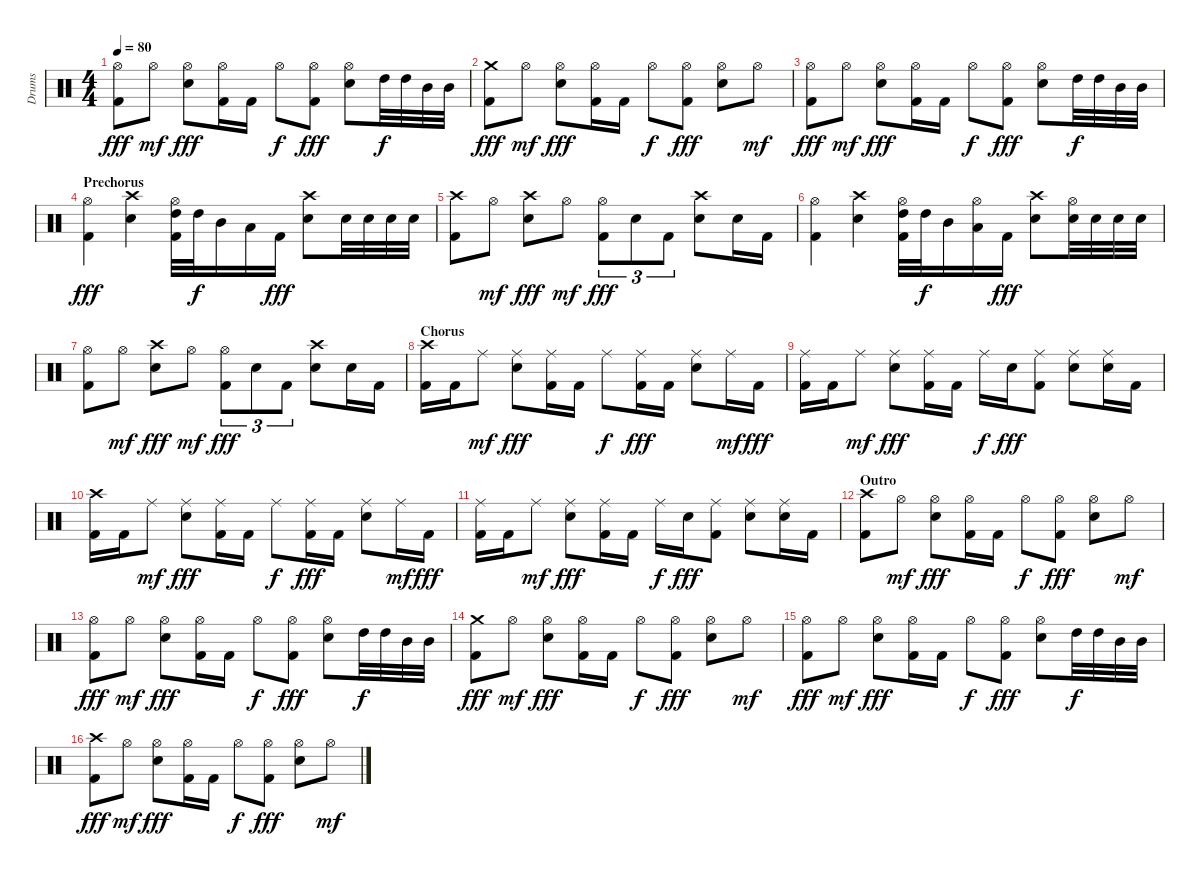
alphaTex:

\track ("Drums" "Drums") {instrument percussion}
\staff {score}
\articulation defaults
\ts (4 4)
\tempo 80
\clef neutral
\ks c
("Hi-Hat (open)" "Kick (hit) 2").8{dy fff} "Hi-Hat (open)".8{dy mf} ("Hi-Hat (open)" "Snare (hit) 2").8{dy fff} ("Hi-Hat (open)" "Kick (hit) 2").16 "Kick (hit) 2".16 "Hi-Hat (open)".8{dy f} ("Hi-Hat (open)" "Kick (hit) 2").8{dy fff} ("Hi-Hat (open)" "Snare (hit) 2").8 "High Tom (hit)".32{dy f} "High Tom (hit)".32 "Mid Tom (hit)".32 "Mid Tom (hit)".32 |
("Crash medium (hit)" "Kick (hit) 2").8{dy fff} "Hi-Hat (open)".8{dy mf} ("Hi-Hat (open)" "Snare (hit) 2").8{dy fff} ("Hi-Hat (open)" "Kick (hit) 2").16 "Kick (hit) 2".16 "Hi-Hat (open)".8{dy f} ("Hi-Hat (open)" "Kick (hit) 2").8{dy fff} ("Hi-Hat (open)" "Snare (hit) 2").8 "Hi-Hat (open)".8{dy mf} |
("Hi-Hat (open)" "Kick (hit) 2").8{dy fff} "Hi-Hat (open)".8{dy mf} ("Hi-Hat (open)" "Snare (hit) 2").8{dy fff} ("Hi-Hat (open)" "Kick (hit) 2").16 "Kick (hit) 2".16 "Hi-Hat (open)".8{dy f} ("Hi-Hat (open)" "Kick (hit) 2").8{dy fff} ("Hi-Hat (open)" "Snare (hit) 2").8 "High Tom (hit)".32{dy f} "High Tom (hit)".32 "Mid Tom (hit)".32 "Mid Tom (hit)".32 |
\section ("" "Prechorus")
("Hi-Hat (open)" "Kick (hit) 2").4{dy fff} ("Crash high (hit)" "Snare (hit) 2").4 ("Hi-Hat (open)" "High Tom (hit)" "Kick (hit) 2").32 "High Tom (hit)".32{dy f} "Mid Tom (hit)".16 "Low Tom (hit)".16 "Kick (hit) 2".16{dy fff} ("Crash high (hit)" "Snare (hit) 2").8 "Snare (hit) 2".32 "Snare (hit) 2".32 "Snare (hit) 2".32 "Snare (hit) 2".32 |
("Crash high (hit)" "Kick (hit) 2").8 "Hi-Hat (open)".8{dy mf} ("Crash high (hit)" "Snare (hit) 2").8{dy fff} "Hi-Hat (open)".8{dy mf} ("Hi-Hat (open)" "Kick (hit) 2").8{tu (3 2) dy fff} "Snare (hit) 2".8{tu (3 2)} "Kick (hit) 2".8{tu (3 2)} ("Crash high (hit)" "Snare (hit) 2").8 "Snare (hit) 2".16 "Kick (hit) 2".16 |
("Hi-Hat (open)" "Kick (hit) 2").4 ("Crash high (hit)" "Snare (hit) 2").4 ("Hi-Hat (open)" "High Tom (hit)" "Kick (hit) 2").32 "High Tom (hit)".32{dy f} "Mid Tom (hit)".16 ("Hi-Hat (open)" "Low Tom (hit)").16 "Kick (hit) 2".16{dy fff} ("Crash high (hit)" "Snare (hit) 2").8 ("Hi-Hat (open)" "Snare (hit) 2").32 "Snare (hit) 2".32 "Snare (hit) 2".32 "Snare (hit) 2".32 |
("Hi-Hat (open)" "Kick (hit) 2").8 "Hi-Hat (open)".8{dy mf} ("Crash high (hit)" "Snare (hit) 2").8{dy fff} "Hi-Hat (open)".8{dy mf} ("Hi-Hat (open)" "Kick (hit) 2").8{tu (3 2) dy fff} "Snare (hit) 2".8{tu (3 2)} "Kick (hit) 2".8{tu (3 2)} ("Crash high (hit)" "Snare (hit) 2").8 "Snare (hit) 2".16 "Kick (hit) 2".16 |
\section ("" "Chorus")
("Crash high (hit)" "Kick (hit) 2").16 "Kick (hit) 2".16 "Ride (middle)".8{dy mf} ("Ride (middle)" "Snare (hit) 2").8{dy fff} ("Ride (middle)" "Kick (hit) 2").16 "Kick (hit) 2".16 "Ride (middle)".8{dy f} ("Ride (middle)" "Kick (hit) 2").16{dy fff} "Kick (hit) 2".16 ("Ride (middle)" "Snare (hit) 2").8 "Ride (middle)".16{dy mf} "Kick (hit) 2".16{dy fff} |
("Ride (middle)" "Kick (hit) 2").16 "Kick (hit) 2".16 "Ride (middle)".8{dy mf} ("Ride (middle)" "Snare (hit) 2").8{dy fff} ("Ride (middle)" "Kick (hit) 2").16 "Kick (hit) 2".16 "Ride (middle)".16{dy f} "Snare (hit) 2".16{dy fff} ("Ride (middle)" "Kick (hit) 2").8 ("Ride (middle)" "Snare (hit) 2").8 ("Ride (middle)" "Snare (hit) 2").16 "Kick (hit) 2".16 |
("Crash high (hit)" "Kick (hit) 2").16 "Kick (hit) 2".16 "Ride (middle)".8{dy mf} ("Ride (middle)" "Snare (hit) 2").8{dy fff} ("Ride (middle)" "Kick (hit) 2").16 "Kick (hit) 2".16 "Ride (middle)".8{dy f} ("Ride (middle)" "Kick (hit) 2").16{dy fff} "Kick (hit) 2".16 ("Ride (middle)" "Snare (hit) 2").8 "Ride (middle)".16{dy mf} "Kick (hit) 2".16{dy fff} |
("Ride (middle)" "Kick (hit) 2").16 "Kick (hit) 2".16 "Ride (middle)".8{dy mf} ("Ride (middle)" "Snare (hit) 2").8{dy fff} ("Ride (middle)" "Kick (hit) 2").16 "Kick (hit) 2".16 "Ride (middle)".16{dy f} "Snare (hit) 2".16{dy fff} ("Ride (middle)" "Kick (hit) 2").8 ("Ride (middle)" "Snare (hit) 2").8 ("Ride (middle)" "Snare (hit) 2").16 "Kick (hit) 2".16 |
\section ("" "Outro")
("Crash high (hit)" "Kick (hit) 2").8 "Hi-Hat (open)".8{dy mf} ("Hi-Hat (open)" "Snare (hit) 2").8{dy fff} ("Hi-Hat (open)" "Kick (hit) 2").16 "Kick (hit) 2".16 "Hi-Hat (open)".8{dy f} ("Hi-Hat (open)" "Kick (hit) 2").8{dy fff} ("Hi-Hat (open)" "Snare (hit) 2").8 "Hi-Hat (open)".8{dy mf} |
("Hi-Hat (open)" "Kick (hit) 2").8{dy fff} "Hi-Hat (open)".8{dy mf} ("Hi-Hat (open)" "Snare (hit) 2").8{dy fff} ("Hi-Hat (open)" "Kick (hit) 2").16 "Kick (hit) 2".16 "Hi-Hat (open)".8{dy f} ("Hi-Hat (open)" "Kick (hit) 2").8{dy fff} ("Hi-Hat (open)" "Snare (hit) 2").8 "High Tom (hit)".32{dy f} "High Tom (hit)".32 "Mid Tom (hit)".32 "Mid Tom (hit)".32 |
("Crash medium (hit)" "Kick (hit) 2").8{dy fff} "Hi-Hat (open)".8{dy mf} ("Hi-Hat (open)" "Snare (hit) 2").8{dy fff} ("Hi-Hat (open)" "Kick (hit) 2").16 "Kick (hit) 2".16 "Hi-Hat (open)".8{dy f} ("Hi-Hat (open)" "Kick (hit) 2").8{dy fff} ("Hi-Hat (open)" "Snare (hit) 2").8 "Hi-Hat (open)".8{dy mf} |
("Hi-Hat (open)" "Kick (hit) 2").8{dy fff} "Hi-Hat (open)".8{dy mf} ("Hi-Hat (open)" "Snare (hit) 2").8{dy fff} ("Hi-Hat (open)" "Kick (hit) 2").16 "Kick (hit) 2".16 "Hi-Hat (open)".8{dy f} ("Hi-Hat (open)" "Kick (hit) 2").8{dy fff} ("Hi-Hat (open)" "Snare (hit) 2").8 "High Tom (hit)".32{dy f} "High Tom (hit)".32 "Mid Tom (hit)".32 "Mid Tom (hit)".32 |
("Crash high (hit)" "Kick (hit) 2").8{dy fff} "Hi-Hat (open)".8{dy mf} ("Hi-Hat (open)" "Snare (hit) 2").8{dy fff} ("Hi-Hat (open)" "Kick (hit) 2").16 "Kick (hit) 2".16 "Hi-Hat (open)".8{dy f} ("Hi-Hat (open)" "Kick (hit) 2").8{dy fff} ("Hi-Hat (open)" "Snare (hit) 2").8 "Hi-Hat (open)".8{dy mf}
